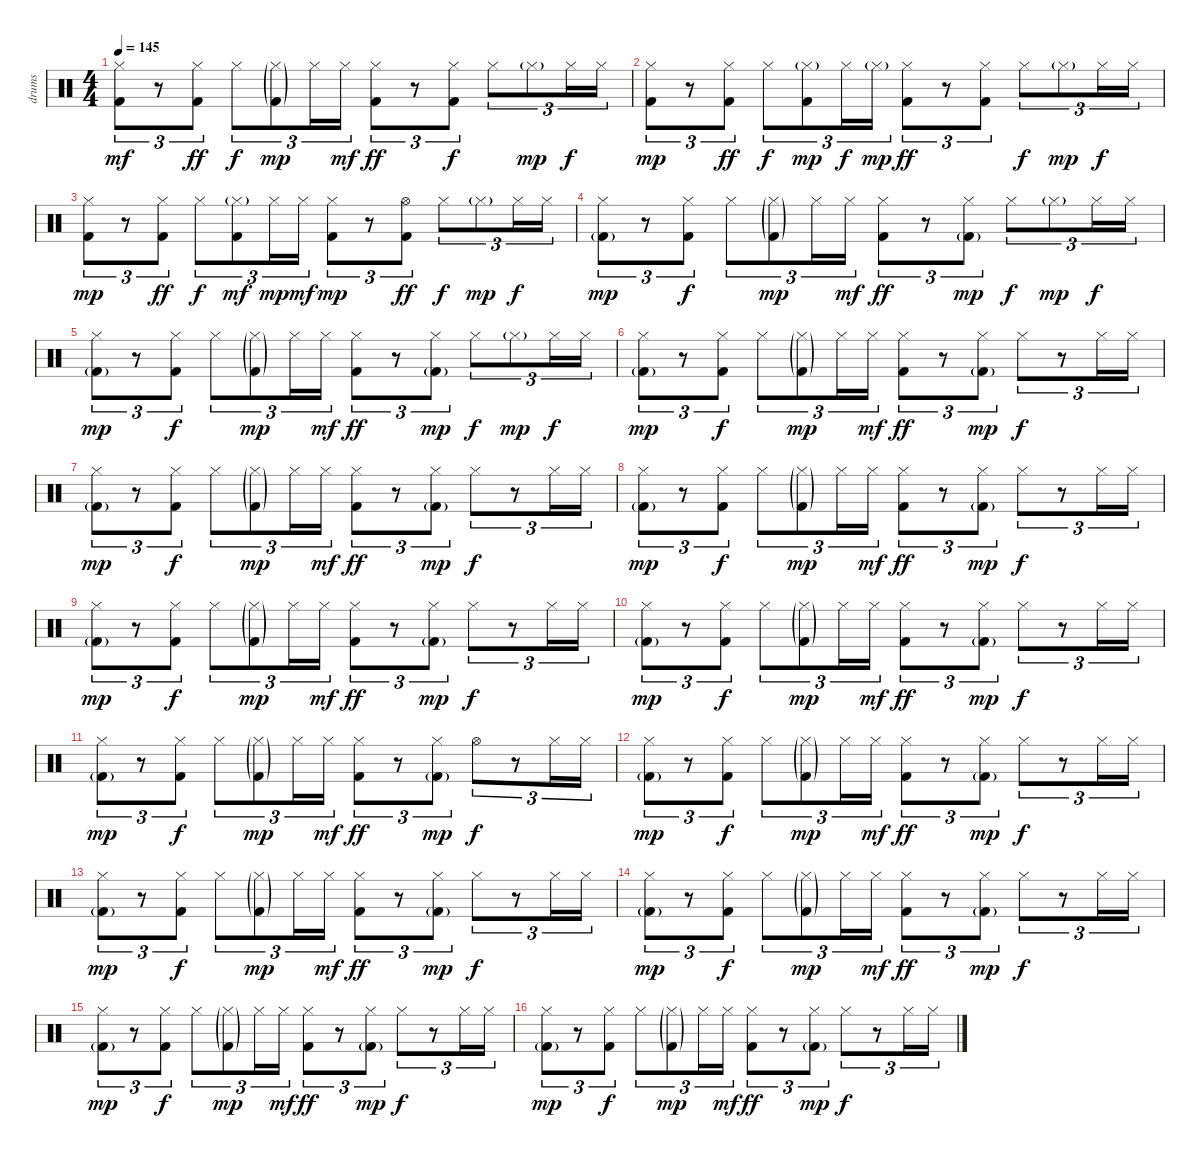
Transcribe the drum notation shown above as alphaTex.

\track ("drums" "drums") {instrument percussion}
\staff {score}
\articulation defaults
\ts (4 4)
\tempo 145
\clef neutral
\ks c
("Hi-Hat (closed)" "Kick (hit) 2").8{tu (3 2) dy mf} r.8{tu (3 2)} ("Hi-Hat (closed)" "Kick (hit) 2").8{tu (3 2) dy ff} "Hi-Hat (closed)".8{tu (3 2) dy f} ("Hi-Hat (closed)"{g} "Kick (hit) 2"{g}).8{tu (3 2) dy mp} "Hi-Hat (closed)".16{tu (3 2)} "Hi-Hat (closed)".16{tu (3 2) dy mf} ("Hi-Hat (closed)" "Kick (hit) 2").8{tu (3 2) dy ff} r.8{tu (3 2)} ("Hi-Hat (closed)" "Kick (hit) 2").8{tu (3 2) dy f} "Hi-Hat (closed)".8{tu (3 2)} "Hi-Hat (closed)"{g}.8{tu (3 2) dy mp} "Hi-Hat (closed)".16{tu (3 2) dy f} "Hi-Hat (closed)".16{tu (3 2)} |
("Hi-Hat (closed)" "Kick (hit) 2").8{tu (3 2) dy mp} r.8{tu (3 2)} ("Hi-Hat (closed)" "Kick (hit) 2").8{tu (3 2) dy ff} "Hi-Hat (closed)".8{tu (3 2) dy f} ("Hi-Hat (closed)"{g} "Kick (hit) 2").8{tu (3 2) dy mp} "Hi-Hat (closed)".16{tu (3 2) dy f} "Hi-Hat (closed)"{g}.16{tu (3 2) dy mp} ("Hi-Hat (closed)" "Kick (hit) 2").8{tu (3 2) dy ff} r.8{tu (3 2)} ("Hi-Hat (closed)" "Kick (hit) 2").8{tu (3 2)} "Hi-Hat (closed)".8{tu (3 2) dy f} "Hi-Hat (closed)"{g}.8{tu (3 2) dy mp} "Hi-Hat (closed)".16{tu (3 2) dy f} "Hi-Hat (closed)".16{tu (3 2)} |
("Hi-Hat (closed)" "Kick (hit) 2").8{tu (3 2) dy mp} r.8{tu (3 2)} ("Hi-Hat (closed)" "Kick (hit) 2").8{tu (3 2) dy ff} "Hi-Hat (closed)".8{tu (3 2) dy f} ("Hi-Hat (closed)"{g} "Kick (hit) 2").8{tu (3 2) dy mf} "Hi-Hat (closed)".16{tu (3 2) dy mp} "Hi-Hat (closed)".16{tu (3 2) dy mf} ("Hi-Hat (closed)" "Kick (hit) 2").8{tu (3 2) dy mp} r.8{tu (3 2)} ("Hi-Hat (open)" "Kick (hit) 2").8{tu (3 2) dy ff} "Hi-Hat (closed)".8{tu (3 2) dy f} "Hi-Hat (closed)"{g}.8{tu (3 2) dy mp} "Hi-Hat (closed)".16{tu (3 2) dy f} "Hi-Hat (closed)".16{tu (3 2)} |
("Hi-Hat (closed)" "Kick (hit) 2"{g}).8{tu (3 2) dy mp} r.8{tu (3 2)} ("Hi-Hat (closed)" "Kick (hit) 2").8{tu (3 2) dy f} "Hi-Hat (closed)".8{tu (3 2)} ("Hi-Hat (closed)"{g} "Kick (hit) 2"{g}).8{tu (3 2) dy mp} "Hi-Hat (closed)".16{tu (3 2)} "Hi-Hat (closed)".16{tu (3 2) dy mf} ("Hi-Hat (closed)" "Kick (hit) 2").8{tu (3 2) dy ff} r.8{tu (3 2)} ("Hi-Hat (closed)" "Kick (hit) 2"{g}).8{tu (3 2) dy mp} "Hi-Hat (closed)".8{tu (3 2) dy f} "Hi-Hat (closed)"{g}.8{tu (3 2) dy mp} "Hi-Hat (closed)".16{tu (3 2) dy f} "Hi-Hat (closed)".16{tu (3 2)} |
("Hi-Hat (closed)" "Kick (hit) 2"{g}).8{tu (3 2) dy mp} r.8{tu (3 2)} ("Hi-Hat (closed)" "Kick (hit) 2").8{tu (3 2) dy f} "Hi-Hat (closed)".8{tu (3 2)} ("Hi-Hat (closed)"{g} "Kick (hit) 2"{g}).8{tu (3 2) dy mp} "Hi-Hat (closed)".16{tu (3 2)} "Hi-Hat (closed)".16{tu (3 2) dy mf} ("Hi-Hat (closed)" "Kick (hit) 2").8{tu (3 2) dy ff} r.8{tu (3 2)} ("Hi-Hat (closed)" "Kick (hit) 2"{g}).8{tu (3 2) dy mp} "Hi-Hat (closed)".8{tu (3 2) dy f} "Hi-Hat (closed)"{g}.8{tu (3 2) dy mp} "Hi-Hat (closed)".16{tu (3 2) dy f} "Hi-Hat (closed)".16{tu (3 2)} |
("Hi-Hat (closed)" "Kick (hit) 2"{g}).8{tu (3 2) dy mp} r.8{tu (3 2)} ("Hi-Hat (closed)" "Kick (hit) 2").8{tu (3 2) dy f} "Hi-Hat (closed)".8{tu (3 2)} ("Hi-Hat (closed)"{g} "Kick (hit) 2"{g}).8{tu (3 2) dy mp} "Hi-Hat (closed)".16{tu (3 2)} "Hi-Hat (closed)".16{tu (3 2) dy mf} ("Hi-Hat (closed)" "Kick (hit) 2").8{tu (3 2) dy ff} r.8{tu (3 2)} ("Hi-Hat (closed)" "Kick (hit) 2"{g}).8{tu (3 2) dy mp} "Hi-Hat (closed)".8{tu (3 2) dy f} r.8{tu (3 2)} "Hi-Hat (closed)".16{tu (3 2)} "Hi-Hat (closed)".16{tu (3 2)} |
("Hi-Hat (closed)" "Kick (hit) 2"{g}).8{tu (3 2) dy mp} r.8{tu (3 2)} ("Hi-Hat (closed)" "Kick (hit) 2").8{tu (3 2) dy f} "Hi-Hat (closed)".8{tu (3 2)} ("Hi-Hat (closed)"{g} "Kick (hit) 2"{g}).8{tu (3 2) dy mp} "Hi-Hat (closed)".16{tu (3 2)} "Hi-Hat (closed)".16{tu (3 2) dy mf} ("Hi-Hat (closed)" "Kick (hit) 2").8{tu (3 2) dy ff} r.8{tu (3 2)} ("Hi-Hat (closed)" "Kick (hit) 2"{g}).8{tu (3 2) dy mp} "Hi-Hat (closed)".8{tu (3 2) dy f} r.8{tu (3 2)} "Hi-Hat (closed)".16{tu (3 2)} "Hi-Hat (closed)".16{tu (3 2)} |
("Hi-Hat (closed)" "Kick (hit) 2"{g}).8{tu (3 2) dy mp} r.8{tu (3 2)} ("Hi-Hat (closed)" "Kick (hit) 2").8{tu (3 2) dy f} "Hi-Hat (closed)".8{tu (3 2)} ("Hi-Hat (closed)"{g} "Kick (hit) 2"{g}).8{tu (3 2) dy mp} "Hi-Hat (closed)".16{tu (3 2)} "Hi-Hat (closed)".16{tu (3 2) dy mf} ("Hi-Hat (closed)" "Kick (hit) 2").8{tu (3 2) dy ff} r.8{tu (3 2)} ("Hi-Hat (closed)" "Kick (hit) 2"{g}).8{tu (3 2) dy mp} "Hi-Hat (closed)".8{tu (3 2) dy f} r.8{tu (3 2)} "Hi-Hat (closed)".16{tu (3 2)} "Hi-Hat (closed)".16{tu (3 2)} |
("Hi-Hat (closed)" "Kick (hit) 2"{g}).8{tu (3 2) dy mp} r.8{tu (3 2)} ("Hi-Hat (closed)" "Kick (hit) 2").8{tu (3 2) dy f} "Hi-Hat (closed)".8{tu (3 2)} ("Hi-Hat (closed)"{g} "Kick (hit) 2"{g}).8{tu (3 2) dy mp} "Hi-Hat (closed)".16{tu (3 2)} "Hi-Hat (closed)".16{tu (3 2) dy mf} ("Hi-Hat (closed)" "Kick (hit) 2").8{tu (3 2) dy ff} r.8{tu (3 2)} ("Hi-Hat (closed)" "Kick (hit) 2"{g}).8{tu (3 2) dy mp} "Hi-Hat (closed)".8{tu (3 2) dy f} r.8{tu (3 2)} "Hi-Hat (closed)".16{tu (3 2)} "Hi-Hat (closed)".16{tu (3 2)} |
("Hi-Hat (closed)" "Kick (hit) 2"{g}).8{tu (3 2) dy mp} r.8{tu (3 2)} ("Hi-Hat (closed)" "Kick (hit) 2").8{tu (3 2) dy f} "Hi-Hat (closed)".8{tu (3 2)} ("Hi-Hat (closed)"{g} "Kick (hit) 2"{g}).8{tu (3 2) dy mp} "Hi-Hat (closed)".16{tu (3 2)} "Hi-Hat (closed)".16{tu (3 2) dy mf} ("Hi-Hat (closed)" "Kick (hit) 2").8{tu (3 2) dy ff} r.8{tu (3 2)} ("Hi-Hat (closed)" "Kick (hit) 2"{g}).8{tu (3 2) dy mp} "Hi-Hat (closed)".8{tu (3 2) dy f} r.8{tu (3 2)} "Hi-Hat (closed)".16{tu (3 2)} "Hi-Hat (closed)".16{tu (3 2)} |
("Hi-Hat (closed)" "Kick (hit) 2"{g}).8{tu (3 2) dy mp} r.8{tu (3 2)} ("Hi-Hat (closed)" "Kick (hit) 2").8{tu (3 2) dy f} "Hi-Hat (closed)".8{tu (3 2)} ("Hi-Hat (closed)"{g} "Kick (hit) 2"{g}).8{tu (3 2) dy mp} "Hi-Hat (closed)".16{tu (3 2)} "Hi-Hat (closed)".16{tu (3 2) dy mf} ("Hi-Hat (closed)" "Kick (hit) 2").8{tu (3 2) dy ff} r.8{tu (3 2)} ("Hi-Hat (closed)" "Kick (hit) 2"{g}).8{tu (3 2) dy mp} "Hi-Hat (open)".8{tu (3 2) dy f} r.8{tu (3 2)} "Hi-Hat (closed)".16{tu (3 2)} "Hi-Hat (closed)".16{tu (3 2)} |
("Hi-Hat (closed)" "Kick (hit) 2"{g}).8{tu (3 2) dy mp} r.8{tu (3 2)} ("Hi-Hat (closed)" "Kick (hit) 2").8{tu (3 2) dy f} "Hi-Hat (closed)".8{tu (3 2)} ("Hi-Hat (closed)"{g} "Kick (hit) 2"{g}).8{tu (3 2) dy mp} "Hi-Hat (closed)".16{tu (3 2)} "Hi-Hat (closed)".16{tu (3 2) dy mf} ("Hi-Hat (closed)" "Kick (hit) 2").8{tu (3 2) dy ff} r.8{tu (3 2)} ("Hi-Hat (closed)" "Kick (hit) 2"{g}).8{tu (3 2) dy mp} "Hi-Hat (closed)".8{tu (3 2) dy f} r.8{tu (3 2)} "Hi-Hat (closed)".16{tu (3 2)} "Hi-Hat (closed)".16{tu (3 2)} |
("Hi-Hat (closed)" "Kick (hit) 2"{g}).8{tu (3 2) dy mp} r.8{tu (3 2)} ("Hi-Hat (closed)" "Kick (hit) 2").8{tu (3 2) dy f} "Hi-Hat (closed)".8{tu (3 2)} ("Hi-Hat (closed)"{g} "Kick (hit) 2"{g}).8{tu (3 2) dy mp} "Hi-Hat (closed)".16{tu (3 2)} "Hi-Hat (closed)".16{tu (3 2) dy mf} ("Hi-Hat (closed)" "Kick (hit) 2").8{tu (3 2) dy ff} r.8{tu (3 2)} ("Hi-Hat (closed)" "Kick (hit) 2"{g}).8{tu (3 2) dy mp} "Hi-Hat (closed)".8{tu (3 2) dy f} r.8{tu (3 2)} "Hi-Hat (closed)".16{tu (3 2)} "Hi-Hat (closed)".16{tu (3 2)} |
("Hi-Hat (closed)" "Kick (hit) 2"{g}).8{tu (3 2) dy mp} r.8{tu (3 2)} ("Hi-Hat (closed)" "Kick (hit) 2").8{tu (3 2) dy f} "Hi-Hat (closed)".8{tu (3 2)} ("Hi-Hat (closed)"{g} "Kick (hit) 2"{g}).8{tu (3 2) dy mp} "Hi-Hat (closed)".16{tu (3 2)} "Hi-Hat (closed)".16{tu (3 2) dy mf} ("Hi-Hat (closed)" "Kick (hit) 2").8{tu (3 2) dy ff} r.8{tu (3 2)} ("Hi-Hat (closed)" "Kick (hit) 2"{g}).8{tu (3 2) dy mp} "Hi-Hat (closed)".8{tu (3 2) dy f} r.8{tu (3 2)} "Hi-Hat (closed)".16{tu (3 2)} "Hi-Hat (closed)".16{tu (3 2)} |
("Hi-Hat (closed)" "Kick (hit) 2"{g}).8{tu (3 2) dy mp} r.8{tu (3 2)} ("Hi-Hat (closed)" "Kick (hit) 2").8{tu (3 2) dy f} "Hi-Hat (closed)".8{tu (3 2)} ("Hi-Hat (closed)"{g} "Kick (hit) 2"{g}).8{tu (3 2) dy mp} "Hi-Hat (closed)".16{tu (3 2)} "Hi-Hat (closed)".16{tu (3 2) dy mf} ("Hi-Hat (closed)" "Kick (hit) 2").8{tu (3 2) dy ff} r.8{tu (3 2)} ("Hi-Hat (closed)" "Kick (hit) 2"{g}).8{tu (3 2) dy mp} "Hi-Hat (closed)".8{tu (3 2) dy f} r.8{tu (3 2)} "Hi-Hat (closed)".16{tu (3 2)} "Hi-Hat (closed)".16{tu (3 2)} |
("Hi-Hat (closed)" "Kick (hit) 2"{g}).8{tu (3 2) dy mp} r.8{tu (3 2)} ("Hi-Hat (closed)" "Kick (hit) 2").8{tu (3 2) dy f} "Hi-Hat (closed)".8{tu (3 2)} ("Hi-Hat (closed)"{g} "Kick (hit) 2"{g}).8{tu (3 2) dy mp} "Hi-Hat (closed)".16{tu (3 2)} "Hi-Hat (closed)".16{tu (3 2) dy mf} ("Hi-Hat (closed)" "Kick (hit) 2").8{tu (3 2) dy ff} r.8{tu (3 2)} ("Hi-Hat (closed)" "Kick (hit) 2"{g}).8{tu (3 2) dy mp} "Hi-Hat (closed)".8{tu (3 2) dy f} r.8{tu (3 2)} "Hi-Hat (closed)".16{tu (3 2)} "Hi-Hat (closed)".16{tu (3 2)}
